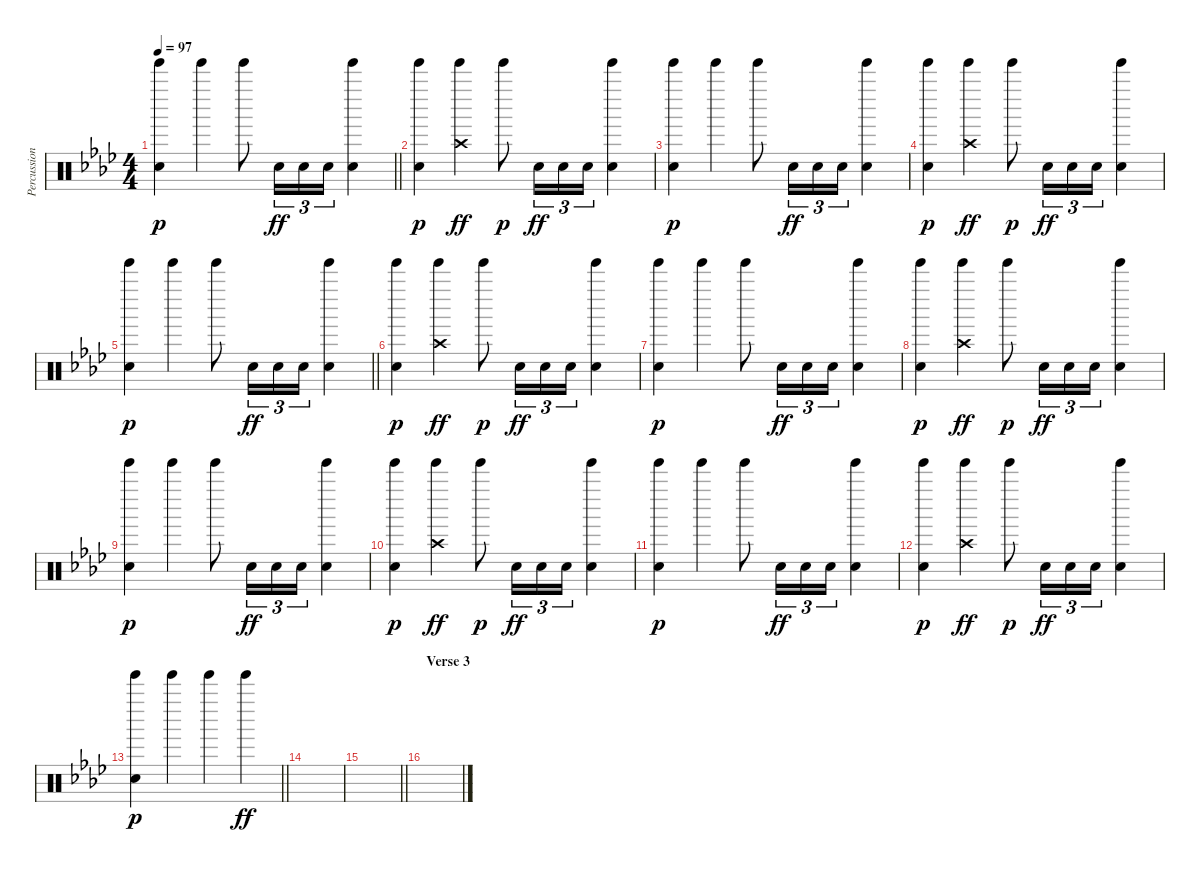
\track ("Percussion" "Percussion") {instrument percussion}
\staff {score}
\articulation defaults
\ts (4 4)
\tempo 97
\clef neutral
\barLineRight lightlight
\ks fminor
("Tinkle Bell (hit)" "Snare (hit)").4{dy p} "Tinkle Bell (hit)".4 "Tinkle Bell (hit)".8 "Snare (hit) 2".16{tu (3 2) dy ff} "Snare (hit) 2".16{tu (3 2)} "Snare (hit) 2".16{tu (3 2)} ("Tinkle Bell (hit)" "Snare (hit) 2").4 |
("Tinkle Bell (hit)" "Snare (hit)").4{dy p} ("Tinkle Bell (hit)" "Crash high (hit)").4{dy ff} "Tinkle Bell (hit)".8{dy p} "Snare (hit) 2".16{tu (3 2) dy ff} "Snare (hit) 2".16{tu (3 2)} "Snare (hit) 2".16{tu (3 2)} ("Tinkle Bell (hit)" "Snare (hit) 2").4 |
("Tinkle Bell (hit)" "Snare (hit)").4{dy p} "Tinkle Bell (hit)".4 "Tinkle Bell (hit)".8 "Snare (hit) 2".16{tu (3 2) dy ff} "Snare (hit) 2".16{tu (3 2)} "Snare (hit) 2".16{tu (3 2)} ("Tinkle Bell (hit)" "Snare (hit) 2").4 |
("Tinkle Bell (hit)" "Snare (hit)").4{dy p} ("Tinkle Bell (hit)" "Crash high (hit)").4{dy ff} "Tinkle Bell (hit)".8{dy p} "Snare (hit) 2".16{tu (3 2) dy ff} "Snare (hit) 2".16{tu (3 2)} "Snare (hit) 2".16{tu (3 2)} ("Tinkle Bell (hit)" "Snare (hit) 2").4 |
\barLineRight lightlight
("Tinkle Bell (hit)" "Snare (hit)").4{dy p} "Tinkle Bell (hit)".4 "Tinkle Bell (hit)".8 "Snare (hit) 2".16{tu (3 2) dy ff} "Snare (hit) 2".16{tu (3 2)} "Snare (hit) 2".16{tu (3 2)} ("Tinkle Bell (hit)" "Snare (hit) 2").4 |
("Tinkle Bell (hit)" "Snare (hit)").4{dy p} ("Tinkle Bell (hit)" "Crash high (hit)").4{dy ff} "Tinkle Bell (hit)".8{dy p} "Snare (hit) 2".16{tu (3 2) dy ff} "Snare (hit) 2".16{tu (3 2)} "Snare (hit) 2".16{tu (3 2)} ("Tinkle Bell (hit)" "Snare (hit) 2").4 |
("Tinkle Bell (hit)" "Snare (hit)").4{dy p} "Tinkle Bell (hit)".4 "Tinkle Bell (hit)".8 "Snare (hit) 2".16{tu (3 2) dy ff} "Snare (hit) 2".16{tu (3 2)} "Snare (hit) 2".16{tu (3 2)} ("Tinkle Bell (hit)" "Snare (hit) 2").4 |
("Tinkle Bell (hit)" "Snare (hit)").4{dy p} ("Tinkle Bell (hit)" "Crash high (hit)").4{dy ff} "Tinkle Bell (hit)".8{dy p} "Snare (hit) 2".16{tu (3 2) dy ff} "Snare (hit) 2".16{tu (3 2)} "Snare (hit) 2".16{tu (3 2)} ("Tinkle Bell (hit)" "Snare (hit) 2").4 |
("Tinkle Bell (hit)" "Snare (hit)").4{dy p} "Tinkle Bell (hit)".4 "Tinkle Bell (hit)".8 "Snare (hit) 2".16{tu (3 2) dy ff} "Snare (hit) 2".16{tu (3 2)} "Snare (hit) 2".16{tu (3 2)} ("Tinkle Bell (hit)" "Snare (hit) 2").4 |
("Tinkle Bell (hit)" "Snare (hit)").4{dy p} ("Tinkle Bell (hit)" "Crash high (hit)").4{dy ff} "Tinkle Bell (hit)".8{dy p} "Snare (hit) 2".16{tu (3 2) dy ff} "Snare (hit) 2".16{tu (3 2)} "Snare (hit) 2".16{tu (3 2)} ("Tinkle Bell (hit)" "Snare (hit) 2").4 |
("Tinkle Bell (hit)" "Snare (hit)").4{dy p} "Tinkle Bell (hit)".4 "Tinkle Bell (hit)".8 "Snare (hit) 2".16{tu (3 2) dy ff} "Snare (hit) 2".16{tu (3 2)} "Snare (hit) 2".16{tu (3 2)} ("Tinkle Bell (hit)" "Snare (hit) 2").4 |
("Tinkle Bell (hit)" "Snare (hit)").4{dy p} ("Tinkle Bell (hit)" "Crash high (hit)").4{dy ff} "Tinkle Bell (hit)".8{dy p} "Snare (hit) 2".16{tu (3 2) dy ff} "Snare (hit) 2".16{tu (3 2)} "Snare (hit) 2".16{tu (3 2)} ("Tinkle Bell (hit)" "Snare (hit) 2").4 |
\barLineRight lightlight
("Tinkle Bell (hit)" "Snare (hit)").4{dy p} "Tinkle Bell (hit)".4 "Tinkle Bell (hit)".4 "Tinkle Bell (hit)".4{dy ff} |
|
\barLineRight lightlight
|
\section ("" "Verse 3")
